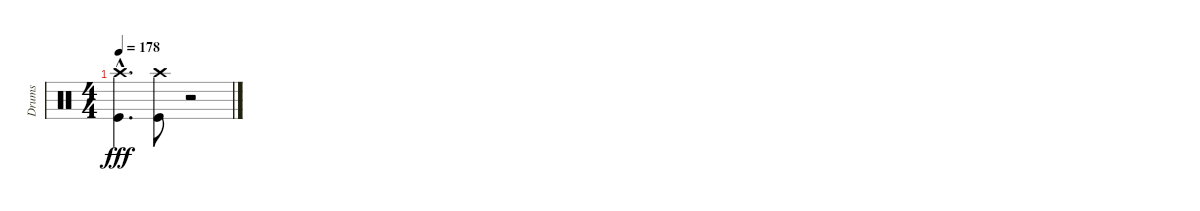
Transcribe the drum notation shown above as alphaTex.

\track ("Drums" "Drums") {instrument percussion}
\staff {score}
\articulation defaults
\ts (4 4)
\tempo 178
\clef neutral
\ks c
("Kick (hit)"{hac} "Crash high (hit)"{hac}).4{d dy fff} ("Kick (hit)" "Crash high (hit)").8 r.2
